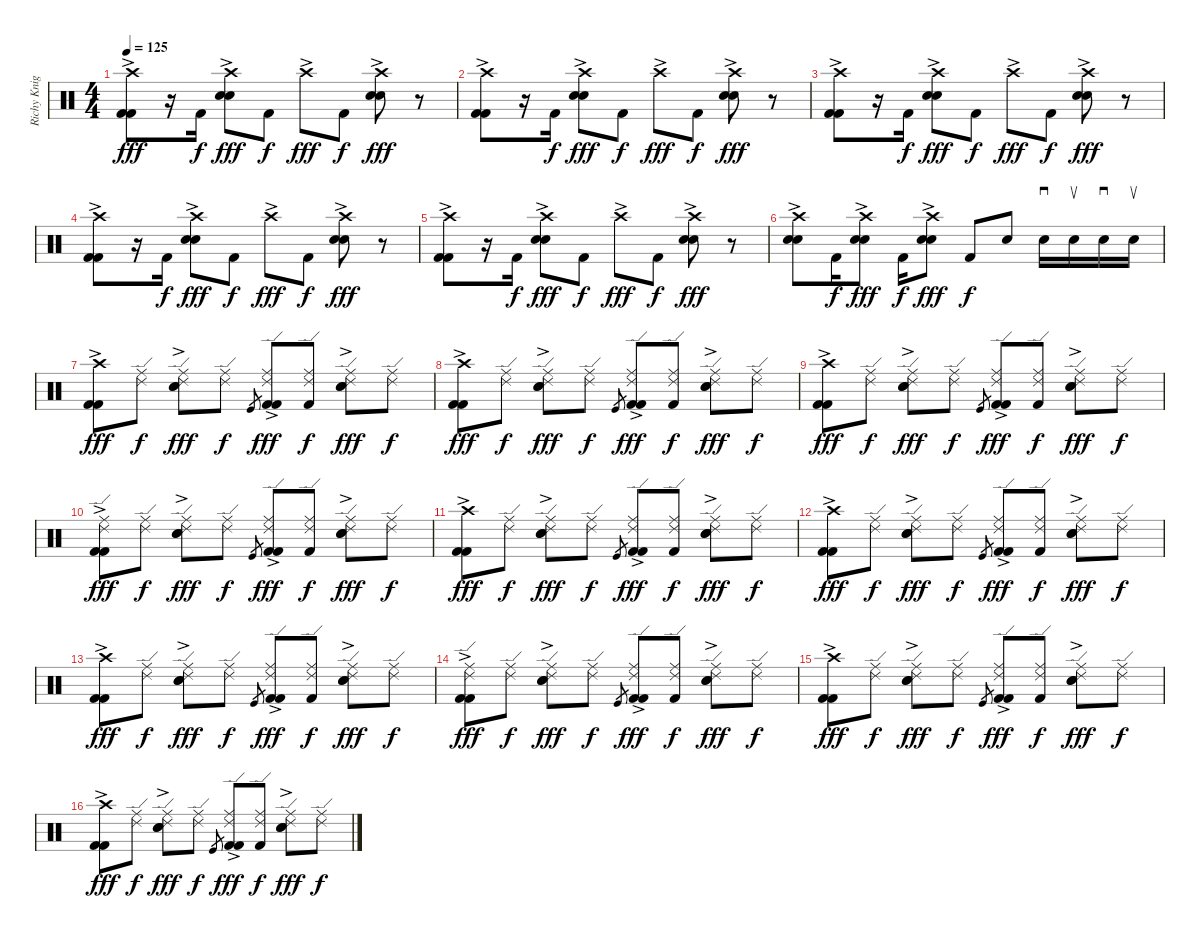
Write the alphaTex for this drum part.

\track ("Richy Knight" "Richy Knig") {instrument percussion}
\staff {score}
\articulation defaults
\ts (4 4)
\tempo 125
\clef neutral
\ks c
("Crash high (hit)"{ac} "Kick (hit) 2"{ac} "Kick (hit) 2"{ac}).8{dy fff} r.16 "Kick (hit) 2".16{dy f} ("Crash high (hit)"{ac} "Electric Snare (hit)"{ac} "Electric Snare (hit)"{ac}).8{dy fff} "Kick (hit) 2".8{dy f} "Crash high (hit)"{ac}.8{dy fff} "Kick (hit) 2".8{dy f} ("Crash high (hit)"{ac} "Electric Snare (hit)"{ac} "Electric Snare (hit)"{ac}).8{dy fff} r.8 |
("Crash high (hit)"{ac} "Kick (hit) 2"{ac} "Kick (hit) 2"{ac}).8 r.16 "Kick (hit) 2".16{dy f} ("Crash high (hit)"{ac} "Electric Snare (hit)"{ac} "Electric Snare (hit)"{ac}).8{dy fff} "Kick (hit) 2".8{dy f} "Crash high (hit)"{ac}.8{dy fff} "Kick (hit) 2".8{dy f} ("Crash high (hit)"{ac} "Electric Snare (hit)"{ac} "Electric Snare (hit)"{ac}).8{dy fff} r.8 |
("Crash high (hit)"{ac} "Kick (hit) 2"{ac} "Kick (hit) 2"{ac}).8 r.16 "Kick (hit) 2".16{dy f} ("Crash high (hit)"{ac} "Electric Snare (hit)"{ac} "Electric Snare (hit)"{ac}).8{dy fff} "Kick (hit) 2".8{dy f} "Crash high (hit)"{ac}.8{dy fff} "Kick (hit) 2".8{dy f} ("Crash high (hit)"{ac} "Electric Snare (hit)"{ac} "Electric Snare (hit)"{ac}).8{dy fff} r.8 |
("Crash high (hit)"{ac} "Kick (hit) 2"{ac} "Kick (hit) 2"{ac}).8 r.16 "Kick (hit) 2".16{dy f} ("Crash high (hit)"{ac} "Electric Snare (hit)"{ac} "Electric Snare (hit)"{ac}).8{dy fff} "Kick (hit) 2".8{dy f} "Crash high (hit)"{ac}.8{dy fff} "Kick (hit) 2".8{dy f} ("Crash high (hit)"{ac} "Electric Snare (hit)"{ac} "Electric Snare (hit)"{ac}).8{dy fff} r.8 |
("Crash high (hit)"{ac} "Kick (hit) 2"{ac} "Kick (hit) 2"{ac}).8 r.16 "Kick (hit) 2".16{dy f} ("Crash high (hit)"{ac} "Electric Snare (hit)"{ac} "Electric Snare (hit)"{ac}).8{dy fff} "Kick (hit) 2".8{dy f} "Crash high (hit)"{ac}.8{dy fff} "Kick (hit) 2".8{dy f} ("Crash high (hit)"{ac} "Electric Snare (hit)"{ac} "Electric Snare (hit)"{ac}).8{dy fff} r.8 |
("Crash high (hit)"{ac} "Electric Snare (hit)"{ac} "Electric Snare (hit)"{ac}).8 "Kick (hit) 2".16{dy f} ("Crash high (hit)"{ac} "Electric Snare (hit)"{ac} "Electric Snare (hit)"{ac}).8{dy fff} "Kick (hit) 2".16{dy f} ("Crash high (hit)"{ac} "Electric Snare (hit)"{ac} "Electric Snare (hit)"{ac}).8{dy fff} "Kick (hit) 2".8{dy f} "Electric Snare (hit)".8 "Electric Snare (hit)".16{sd} "Electric Snare (hit)".16{su} "Electric Snare (hit)".16{sd} "Electric Snare (hit)".16{su} |
("Crash high (hit)"{ac} "Kick (hit) 2"{ac} "Kick (hit) 2"{ac}).8{dy fff} ("Ride (middle)" "Ride (edge) 2").8{dy f} ("Ride (middle)" "Ride (edge) 2" "Electric Snare (hit)"{ac} "Electric Snare (hit)"{ac}).8{dy fff} ("Ride (middle)" "Ride (edge) 2").8{dy f} "Kick (hit)".8{gr} ("Ride (middle)" "Ride (edge) 2" "Kick (hit) 2"{ac} "Kick (hit) 2"{ac}).8{dy fff} ("Ride (middle)" "Ride (edge) 2" "Kick (hit) 2").8{dy f} ("Ride (middle)" "Ride (edge) 2" "Electric Snare (hit)"{ac} "Electric Snare (hit)"{ac}).8{dy fff} ("Ride (middle)" "Ride (edge) 2").8{dy f} |
("Crash high (hit)"{ac} "Kick (hit) 2"{ac} "Kick (hit) 2"{ac}).8{dy fff} ("Ride (middle)" "Ride (edge) 2").8{dy f} ("Ride (middle)" "Ride (edge) 2" "Electric Snare (hit)"{ac} "Electric Snare (hit)"{ac}).8{dy fff} ("Ride (middle)" "Ride (edge) 2").8{dy f} "Kick (hit)".8{gr} ("Ride (middle)" "Ride (edge) 2" "Kick (hit) 2"{ac} "Kick (hit) 2"{ac}).8{dy fff} ("Ride (middle)" "Ride (edge) 2" "Kick (hit) 2").8{dy f} ("Ride (middle)" "Ride (edge) 2" "Electric Snare (hit)"{ac} "Electric Snare (hit)"{ac}).8{dy fff} ("Ride (middle)" "Ride (edge) 2").8{dy f} |
("Crash high (hit)"{ac} "Kick (hit) 2"{ac} "Kick (hit) 2"{ac}).8{dy fff} ("Ride (middle)" "Ride (edge) 2").8{dy f} ("Ride (middle)" "Ride (edge) 2" "Electric Snare (hit)"{ac} "Electric Snare (hit)"{ac}).8{dy fff} ("Ride (middle)" "Ride (edge) 2").8{dy f} "Kick (hit)".8{gr} ("Ride (middle)" "Ride (edge) 2" "Kick (hit) 2"{ac} "Kick (hit) 2"{ac}).8{dy fff} ("Ride (middle)" "Ride (edge) 2" "Kick (hit) 2").8{dy f} ("Ride (middle)" "Ride (edge) 2" "Electric Snare (hit)"{ac} "Electric Snare (hit)"{ac}).8{dy fff} ("Ride (middle)" "Ride (edge) 2").8{dy f} |
("Ride (middle)"{ac} "Ride (edge) 2"{ac} "Kick (hit) 2"{ac} "Kick (hit) 2"{ac}).8{dy fff} ("Ride (middle)" "Ride (edge) 2").8{dy f} ("Ride (middle)" "Ride (edge) 2" "Electric Snare (hit)"{ac} "Electric Snare (hit)"{ac}).8{dy fff} ("Ride (middle)" "Ride (edge) 2").8{dy f} "Kick (hit)".8{gr} ("Ride (middle)" "Ride (edge) 2" "Kick (hit) 2"{ac} "Kick (hit) 2"{ac}).8{dy fff} ("Ride (middle)" "Ride (edge) 2" "Kick (hit) 2").8{dy f} ("Ride (middle)" "Ride (edge) 2" "Electric Snare (hit)"{ac} "Electric Snare (hit)"{ac}).8{dy fff} ("Ride (middle)" "Ride (edge) 2").8{dy f} |
("Crash high (hit)"{ac} "Kick (hit) 2"{ac} "Kick (hit) 2"{ac}).8{dy fff} ("Ride (middle)" "Ride (edge) 2").8{dy f} ("Ride (middle)" "Ride (edge) 2" "Electric Snare (hit)"{ac} "Electric Snare (hit)"{ac}).8{dy fff} ("Ride (middle)" "Ride (edge) 2").8{dy f} "Kick (hit)".8{gr} ("Ride (middle)" "Ride (edge) 2" "Kick (hit) 2"{ac} "Kick (hit) 2"{ac}).8{dy fff} ("Ride (middle)" "Ride (edge) 2" "Kick (hit) 2").8{dy f} ("Ride (middle)" "Ride (edge) 2" "Electric Snare (hit)"{ac} "Electric Snare (hit)"{ac}).8{dy fff} ("Ride (middle)" "Ride (edge) 2").8{dy f} |
("Crash high (hit)"{ac} "Kick (hit) 2"{ac} "Kick (hit) 2"{ac}).8{dy fff} ("Ride (middle)" "Ride (edge) 2").8{dy f} ("Ride (middle)" "Ride (edge) 2" "Electric Snare (hit)"{ac} "Electric Snare (hit)"{ac}).8{dy fff} ("Ride (middle)" "Ride (edge) 2").8{dy f} "Kick (hit)".8{gr} ("Ride (middle)" "Ride (edge) 2" "Kick (hit) 2"{ac} "Kick (hit) 2"{ac}).8{dy fff} ("Ride (middle)" "Ride (edge) 2" "Kick (hit) 2").8{dy f} ("Ride (middle)" "Ride (edge) 2" "Electric Snare (hit)"{ac} "Electric Snare (hit)"{ac}).8{dy fff} ("Ride (middle)" "Ride (edge) 2").8{dy f} |
("Crash high (hit)"{ac} "Kick (hit) 2"{ac} "Kick (hit) 2"{ac}).8{dy fff} ("Ride (middle)" "Ride (edge) 2").8{dy f} ("Ride (middle)" "Ride (edge) 2" "Electric Snare (hit)"{ac} "Electric Snare (hit)"{ac}).8{dy fff} ("Ride (middle)" "Ride (edge) 2").8{dy f} "Kick (hit)".8{gr} ("Ride (middle)" "Ride (edge) 2" "Kick (hit) 2"{ac} "Kick (hit) 2"{ac}).8{dy fff} ("Ride (middle)" "Ride (edge) 2" "Kick (hit) 2").8{dy f} ("Ride (middle)" "Ride (edge) 2" "Electric Snare (hit)"{ac} "Electric Snare (hit)"{ac}).8{dy fff} ("Ride (middle)" "Ride (edge) 2").8{dy f} |
("Ride (middle)"{ac} "Ride (edge) 2"{ac} "Kick (hit) 2"{ac} "Kick (hit) 2"{ac}).8{dy fff} ("Ride (middle)" "Ride (edge) 2").8{dy f} ("Ride (middle)" "Ride (edge) 2" "Electric Snare (hit)"{ac} "Electric Snare (hit)"{ac}).8{dy fff} ("Ride (middle)" "Ride (edge) 2").8{dy f} "Kick (hit)".8{gr} ("Ride (middle)" "Ride (edge) 2" "Kick (hit) 2"{ac} "Kick (hit) 2"{ac}).8{dy fff} ("Ride (middle)" "Ride (edge) 2" "Kick (hit) 2").8{dy f} ("Ride (middle)" "Ride (edge) 2" "Electric Snare (hit)"{ac} "Electric Snare (hit)"{ac}).8{dy fff} ("Ride (middle)" "Ride (edge) 2").8{dy f} |
("Crash high (hit)"{ac} "Kick (hit) 2"{ac} "Kick (hit) 2"{ac}).8{dy fff} ("Ride (middle)" "Ride (edge) 2").8{dy f} ("Ride (middle)" "Ride (edge) 2" "Electric Snare (hit)"{ac} "Electric Snare (hit)"{ac}).8{dy fff} ("Ride (middle)" "Ride (edge) 2").8{dy f} "Kick (hit)".8{gr} ("Ride (middle)" "Ride (edge) 2" "Kick (hit) 2"{ac} "Kick (hit) 2"{ac}).8{dy fff} ("Ride (middle)" "Ride (edge) 2" "Kick (hit) 2").8{dy f} ("Ride (middle)" "Ride (edge) 2" "Electric Snare (hit)"{ac} "Electric Snare (hit)"{ac}).8{dy fff} ("Ride (middle)" "Ride (edge) 2").8{dy f} |
("Crash high (hit)"{ac} "Kick (hit) 2"{ac} "Kick (hit) 2"{ac}).8{dy fff} ("Ride (middle)" "Ride (edge) 2").8{dy f} ("Ride (middle)" "Ride (edge) 2" "Electric Snare (hit)"{ac} "Electric Snare (hit)"{ac}).8{dy fff} ("Ride (middle)" "Ride (edge) 2").8{dy f} "Kick (hit)".8{gr} ("Ride (middle)" "Ride (edge) 2" "Kick (hit) 2"{ac} "Kick (hit) 2"{ac}).8{dy fff} ("Ride (middle)" "Ride (edge) 2" "Kick (hit) 2").8{dy f} ("Ride (middle)" "Ride (edge) 2" "Electric Snare (hit)"{ac} "Electric Snare (hit)"{ac}).8{dy fff} ("Ride (middle)" "Ride (edge) 2").8{dy f}
